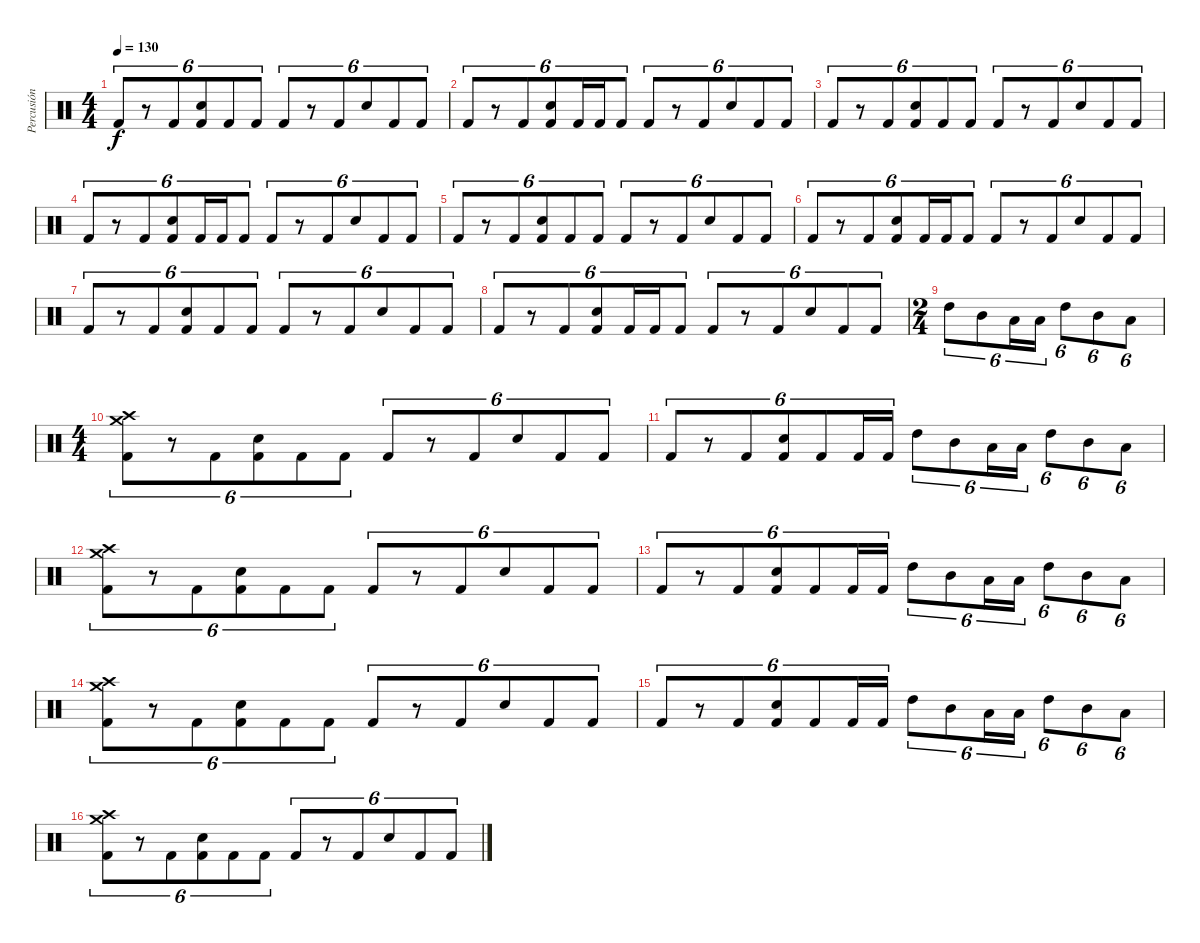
\track ("Percusión" "Percusión") {instrument percussion}
\staff {score}
\articulation defaults
\ts (4 4)
\tempo 130
\clef neutral
\ks c "Kick (hit) 2".8{tu (6 4) dy f}
r.8{tu (6 4)} "Kick (hit) 2".8{tu (6 4)} ("Electric Snare (hit)" "Kick (hit) 2").8{tu (6 4)} "Kick (hit) 2".8{tu (6 4)} "Kick (hit) 2".8{tu (6 4)} "Kick (hit) 2".8{tu (6 4)} r.8{tu (6 4)} "Kick (hit) 2".8{tu (6 4)} "Electric Snare (hit)".8{tu (6 4)} "Kick (hit) 2".8{tu (6 4)} "Kick (hit) 2".8{tu (6 4)} |
"Kick (hit) 2".8{tu (6 4)} r.8{tu (6 4)} "Kick (hit) 2".8{tu (6 4)} ("Electric Snare (hit)" "Kick (hit) 2").8{tu (6 4)} "Kick (hit) 2".16{tu (6 4)} "Kick (hit) 2".16{tu (6 4)} "Kick (hit) 2".8{tu (6 4)} "Kick (hit) 2".8{tu (6 4)} r.8{tu (6 4)} "Kick (hit) 2".8{tu (6 4)} "Electric Snare (hit)".8{tu (6 4)} "Kick (hit) 2".8{tu (6 4)} "Kick (hit) 2".8{tu (6 4)} |
"Kick (hit) 2".8{tu (6 4)} r.8{tu (6 4)} "Kick (hit) 2".8{tu (6 4)} ("Electric Snare (hit)" "Kick (hit) 2").8{tu (6 4)} "Kick (hit) 2".8{tu (6 4)} "Kick (hit) 2".8{tu (6 4)} "Kick (hit) 2".8{tu (6 4)} r.8{tu (6 4)} "Kick (hit) 2".8{tu (6 4)} "Electric Snare (hit)".8{tu (6 4)} "Kick (hit) 2".8{tu (6 4)} "Kick (hit) 2".8{tu (6 4)} |
"Kick (hit) 2".8{tu (6 4)} r.8{tu (6 4)} "Kick (hit) 2".8{tu (6 4)} ("Electric Snare (hit)" "Kick (hit) 2").8{tu (6 4)} "Kick (hit) 2".16{tu (6 4)} "Kick (hit) 2".16{tu (6 4)} "Kick (hit) 2".8{tu (6 4)} "Kick (hit) 2".8{tu (6 4)} r.8{tu (6 4)} "Kick (hit) 2".8{tu (6 4)} "Electric Snare (hit)".8{tu (6 4)} "Kick (hit) 2".8{tu (6 4)} "Kick (hit) 2".8{tu (6 4)} |
"Kick (hit) 2".8{tu (6 4)} r.8{tu (6 4)} "Kick (hit) 2".8{tu (6 4)} ("Electric Snare (hit)" "Kick (hit) 2").8{tu (6 4)} "Kick (hit) 2".8{tu (6 4)} "Kick (hit) 2".8{tu (6 4)} "Kick (hit) 2".8{tu (6 4)} r.8{tu (6 4)} "Kick (hit) 2".8{tu (6 4)} "Electric Snare (hit)".8{tu (6 4)} "Kick (hit) 2".8{tu (6 4)} "Kick (hit) 2".8{tu (6 4)} |
"Kick (hit) 2".8{tu (6 4)} r.8{tu (6 4)} "Kick (hit) 2".8{tu (6 4)} ("Electric Snare (hit)" "Kick (hit) 2").8{tu (6 4)} "Kick (hit) 2".16{tu (6 4)} "Kick (hit) 2".16{tu (6 4)} "Kick (hit) 2".8{tu (6 4)} "Kick (hit) 2".8{tu (6 4)} r.8{tu (6 4)} "Kick (hit) 2".8{tu (6 4)} "Electric Snare (hit)".8{tu (6 4)} "Kick (hit) 2".8{tu (6 4)} "Kick (hit) 2".8{tu (6 4)} |
"Kick (hit) 2".8{tu (6 4)} r.8{tu (6 4)} "Kick (hit) 2".8{tu (6 4)} ("Electric Snare (hit)" "Kick (hit) 2").8{tu (6 4)} "Kick (hit) 2".8{tu (6 4)} "Kick (hit) 2".8{tu (6 4)} "Kick (hit) 2".8{tu (6 4)} r.8{tu (6 4)} "Kick (hit) 2".8{tu (6 4)} "Electric Snare (hit)".8{tu (6 4)} "Kick (hit) 2".8{tu (6 4)} "Kick (hit) 2".8{tu (6 4)} |
"Kick (hit) 2".8{tu (6 4)} r.8{tu (6 4)} "Kick (hit) 2".8{tu (6 4)} ("Electric Snare (hit)" "Kick (hit) 2").8{tu (6 4)} "Kick (hit) 2".16{tu (6 4)} "Kick (hit) 2".16{tu (6 4)} "Kick (hit) 2".8{tu (6 4)} "Kick (hit) 2".8{tu (6 4)} r.8{tu (6 4)} "Kick (hit) 2".8{tu (6 4)} "Electric Snare (hit)".8{tu (6 4)} "Kick (hit) 2".8{tu (6 4)} "Kick (hit) 2".8{tu (6 4)} |
\ts (2 4)
"High Tom (hit)".8{tu (6 4)} "Mid Tom (hit)".8{tu (6 4)} "Low Tom (hit)".16{tu (6 4)} "Low Tom (hit)".16{tu (6 4)} "High Tom (hit)".8{tu (6 4)} "Mid Tom (hit)".8{tu (6 4)} "Low Tom (hit)".8{tu (6 4)} |
\ts (4 4)
("Crash high (hit)" "Crash medium (hit)" "Kick (hit) 2").8{tu (6 4)} r.8{tu (6 4)} "Kick (hit) 2".8{tu (6 4)} ("Electric Snare (hit)" "Kick (hit) 2").8{tu (6 4)} "Kick (hit) 2".8{tu (6 4)} "Kick (hit) 2".8{tu (6 4)} "Kick (hit) 2".8{tu (6 4)} r.8{tu (6 4)} "Kick (hit) 2".8{tu (6 4)} "Electric Snare (hit)".8{tu (6 4)} "Kick (hit) 2".8{tu (6 4)} "Kick (hit) 2".8{tu (6 4)} |
"Kick (hit) 2".8{tu (6 4)} r.8{tu (6 4)} "Kick (hit) 2".8{tu (6 4)} ("Electric Snare (hit)" "Kick (hit) 2").8{tu (6 4)} "Kick (hit) 2".8{tu (6 4)} "Kick (hit) 2".16{tu (6 4)} "Kick (hit) 2".16{tu (6 4)} "High Tom (hit)".8{tu (6 4)} "Mid Tom (hit)".8{tu (6 4)} "Low Tom (hit)".16{tu (6 4)} "Low Tom (hit)".16{tu (6 4)} "High Tom (hit)".8{tu (6 4)} "Mid Tom (hit)".8{tu (6 4)} "Low Tom (hit)".8{tu (6 4)} |
("Crash high (hit)" "Crash medium (hit)" "Kick (hit) 2").8{tu (6 4)} r.8{tu (6 4)} "Kick (hit) 2".8{tu (6 4)} ("Electric Snare (hit)" "Kick (hit) 2").8{tu (6 4)} "Kick (hit) 2".8{tu (6 4)} "Kick (hit) 2".8{tu (6 4)} "Kick (hit) 2".8{tu (6 4)} r.8{tu (6 4)} "Kick (hit) 2".8{tu (6 4)} "Electric Snare (hit)".8{tu (6 4)} "Kick (hit) 2".8{tu (6 4)} "Kick (hit) 2".8{tu (6 4)} |
"Kick (hit) 2".8{tu (6 4)} r.8{tu (6 4)} "Kick (hit) 2".8{tu (6 4)} ("Electric Snare (hit)" "Kick (hit) 2").8{tu (6 4)} "Kick (hit) 2".8{tu (6 4)} "Kick (hit) 2".16{tu (6 4)} "Kick (hit) 2".16{tu (6 4)} "High Tom (hit)".8{tu (6 4)} "Mid Tom (hit)".8{tu (6 4)} "Low Tom (hit)".16{tu (6 4)} "Low Tom (hit)".16{tu (6 4)} "High Tom (hit)".8{tu (6 4)} "Mid Tom (hit)".8{tu (6 4)} "Low Tom (hit)".8{tu (6 4)} |
("Crash high (hit)" "Crash medium (hit)" "Kick (hit) 2").8{tu (6 4)} r.8{tu (6 4)} "Kick (hit) 2".8{tu (6 4)} ("Electric Snare (hit)" "Kick (hit) 2").8{tu (6 4)} "Kick (hit) 2".8{tu (6 4)} "Kick (hit) 2".8{tu (6 4)} "Kick (hit) 2".8{tu (6 4)} r.8{tu (6 4)} "Kick (hit) 2".8{tu (6 4)} "Electric Snare (hit)".8{tu (6 4)} "Kick (hit) 2".8{tu (6 4)} "Kick (hit) 2".8{tu (6 4)} |
"Kick (hit) 2".8{tu (6 4)} r.8{tu (6 4)} "Kick (hit) 2".8{tu (6 4)} ("Electric Snare (hit)" "Kick (hit) 2").8{tu (6 4)} "Kick (hit) 2".8{tu (6 4)} "Kick (hit) 2".16{tu (6 4)} "Kick (hit) 2".16{tu (6 4)} "High Tom (hit)".8{tu (6 4)} "Mid Tom (hit)".8{tu (6 4)} "Low Tom (hit)".16{tu (6 4)} "Low Tom (hit)".16{tu (6 4)} "High Tom (hit)".8{tu (6 4)} "Mid Tom (hit)".8{tu (6 4)} "Low Tom (hit)".8{tu (6 4)} |
("Crash high (hit)" "Crash medium (hit)" "Kick (hit) 2").8{tu (6 4)} r.8{tu (6 4)} "Kick (hit) 2".8{tu (6 4)} ("Electric Snare (hit)" "Kick (hit) 2").8{tu (6 4)} "Kick (hit) 2".8{tu (6 4)} "Kick (hit) 2".8{tu (6 4)} "Kick (hit) 2".8{tu (6 4)} r.8{tu (6 4)} "Kick (hit) 2".8{tu (6 4)} "Electric Snare (hit)".8{tu (6 4)} "Kick (hit) 2".8{tu (6 4)} "Kick (hit) 2".8{tu (6 4)}
